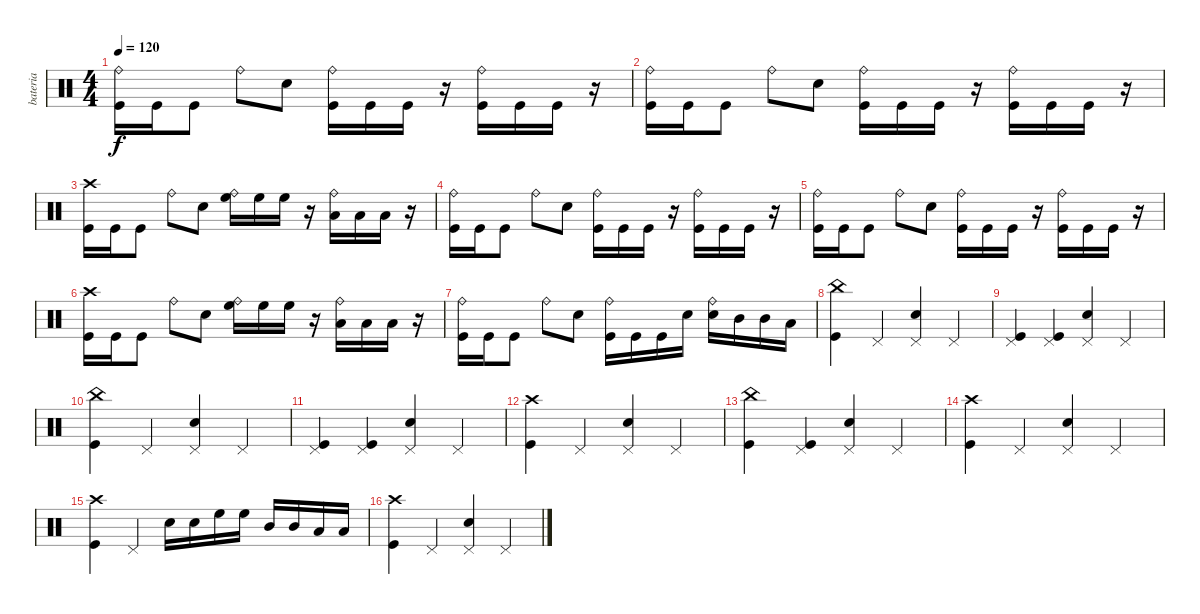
\track ("bateria" "bateria") {instrument percussion}
\staff {score}
\articulation defaults
\ts (4 4)
\tempo 120
\clef neutral
\ks c
("Ride (bell)" "Kick (hit)").16{dy f} "Kick (hit)".16 "Kick (hit)".8 "Ride (bell)".8 "Snare (hit) 2".8 ("Ride (bell)" "Kick (hit)").16 "Kick (hit)".16 "Kick (hit)".16 r.16 ("Ride (bell)" "Kick (hit)").16 "Kick (hit)".16 "Kick (hit)".16 r.16 |
("Ride (bell)" "Kick (hit)").16 "Kick (hit)".16 "Kick (hit)".8 "Ride (bell)".8 "Snare (hit) 2".8 ("Ride (bell)" "Kick (hit)").16 "Kick (hit)".16 "Kick (hit)".16 r.16 ("Ride (bell)" "Kick (hit)").16 "Kick (hit)".16 "Kick (hit)".16 r.16 |
("Crash high (hit)" "Kick (hit)").16 "Kick (hit)".16 "Kick (hit)".8 "Ride (bell)".8 "Snare (hit) 2".8 ("Ride (bell)" "High Floor Tom (hit)").16 "High Floor Tom (hit)".16 "High Floor Tom (hit)".16 r.16 ("Ride (bell)" "Low Tom (hit)").16 "Low Tom (hit)".16 "Low Tom (hit)".16 r.16 |
("Ride (bell)" "Kick (hit)").16 "Kick (hit)".16 "Kick (hit)".8 "Ride (bell)".8 "Snare (hit) 2".8 ("Ride (bell)" "Kick (hit)").16 "Kick (hit)".16 "Kick (hit)".16 r.16 ("Ride (bell)" "Kick (hit)").16 "Kick (hit)".16 "Kick (hit)".16 r.16 |
("Ride (bell)" "Kick (hit)").16 "Kick (hit)".16 "Kick (hit)".8 "Ride (bell)".8 "Snare (hit) 2".8 ("Ride (bell)" "Kick (hit)").16 "Kick (hit)".16 "Kick (hit)".16 r.16 ("Ride (bell)" "Kick (hit)").16 "Kick (hit)".16 "Kick (hit)".16 r.16 |
("Crash high (hit)" "Kick (hit)").16 "Kick (hit)".16 "Kick (hit)".8 "Ride (bell)".8 "Snare (hit) 2".8 ("Ride (bell)" "High Floor Tom (hit)").16 "High Floor Tom (hit)".16 "High Floor Tom (hit)".16 r.16 ("Ride (bell)" "Low Tom (hit)").16 "Low Tom (hit)".16 "Low Tom (hit)".16 r.16 |
("Ride (bell)" "Kick (hit)").16 "Kick (hit)".16 "Kick (hit)".8 "Ride (bell)".8 "Snare (hit) 2".8 ("Ride (bell)" "Kick (hit)").16 "Kick (hit)".16 "Kick (hit)".16 "Electric Snare (hit)".16 ("Ride (bell)" "Electric Snare (hit)").16 "Mid Tom (hit)".16 "Mid Tom (hit)".16 "Low Tom (hit)".16 |
("China (hit)" "Kick (hit)").4 "Pedal Hi-Hat (hit)".4 ("Pedal Hi-Hat (hit)" "Snare (hit) 2").4 "Pedal Hi-Hat (hit)".4 |
("Pedal Hi-Hat (hit)" "Kick (hit)").4 ("Pedal Hi-Hat (hit)" "Kick (hit)").4 ("Pedal Hi-Hat (hit)" "Snare (hit) 2").4 "Pedal Hi-Hat (hit)".4 |
("China (hit)" "Kick (hit)").4 "Pedal Hi-Hat (hit)".4 ("Pedal Hi-Hat (hit)" "Snare (hit) 2").4 "Pedal Hi-Hat (hit)".4 |
("Pedal Hi-Hat (hit)" "Kick (hit)").4 ("Pedal Hi-Hat (hit)" "Kick (hit)").4 ("Pedal Hi-Hat (hit)" "Snare (hit) 2").4 "Pedal Hi-Hat (hit)".4 |
("Crash high (hit)" "Kick (hit)").4 "Pedal Hi-Hat (hit)".4 ("Pedal Hi-Hat (hit)" "Snare (hit) 2").4 "Pedal Hi-Hat (hit)".4 |
("China (hit)" "Kick (hit)").4 ("Pedal Hi-Hat (hit)" "Kick (hit)").4 ("Pedal Hi-Hat (hit)" "Snare (hit) 2").4 "Pedal Hi-Hat (hit)".4 |
("Crash high (hit)" "Kick (hit)").4 "Pedal Hi-Hat (hit)".4 ("Pedal Hi-Hat (hit)" "Snare (hit) 2").4 "Pedal Hi-Hat (hit)".4 |
("Crash high (hit)" "Kick (hit)").4 "Pedal Hi-Hat (hit)".4 "Electric Snare (hit)".16 "Electric Snare (hit)".16 "High Floor Tom (hit)".16 "High Floor Tom (hit)".16 "Mid Tom (hit)".16 "Mid Tom (hit)".16 "Low Tom (hit)".16 "Low Tom (hit)".16 |
("Crash high (hit)" "Kick (hit)").4 "Pedal Hi-Hat (hit)".4 ("Pedal Hi-Hat (hit)" "Snare (hit) 2").4 "Pedal Hi-Hat (hit)".4
